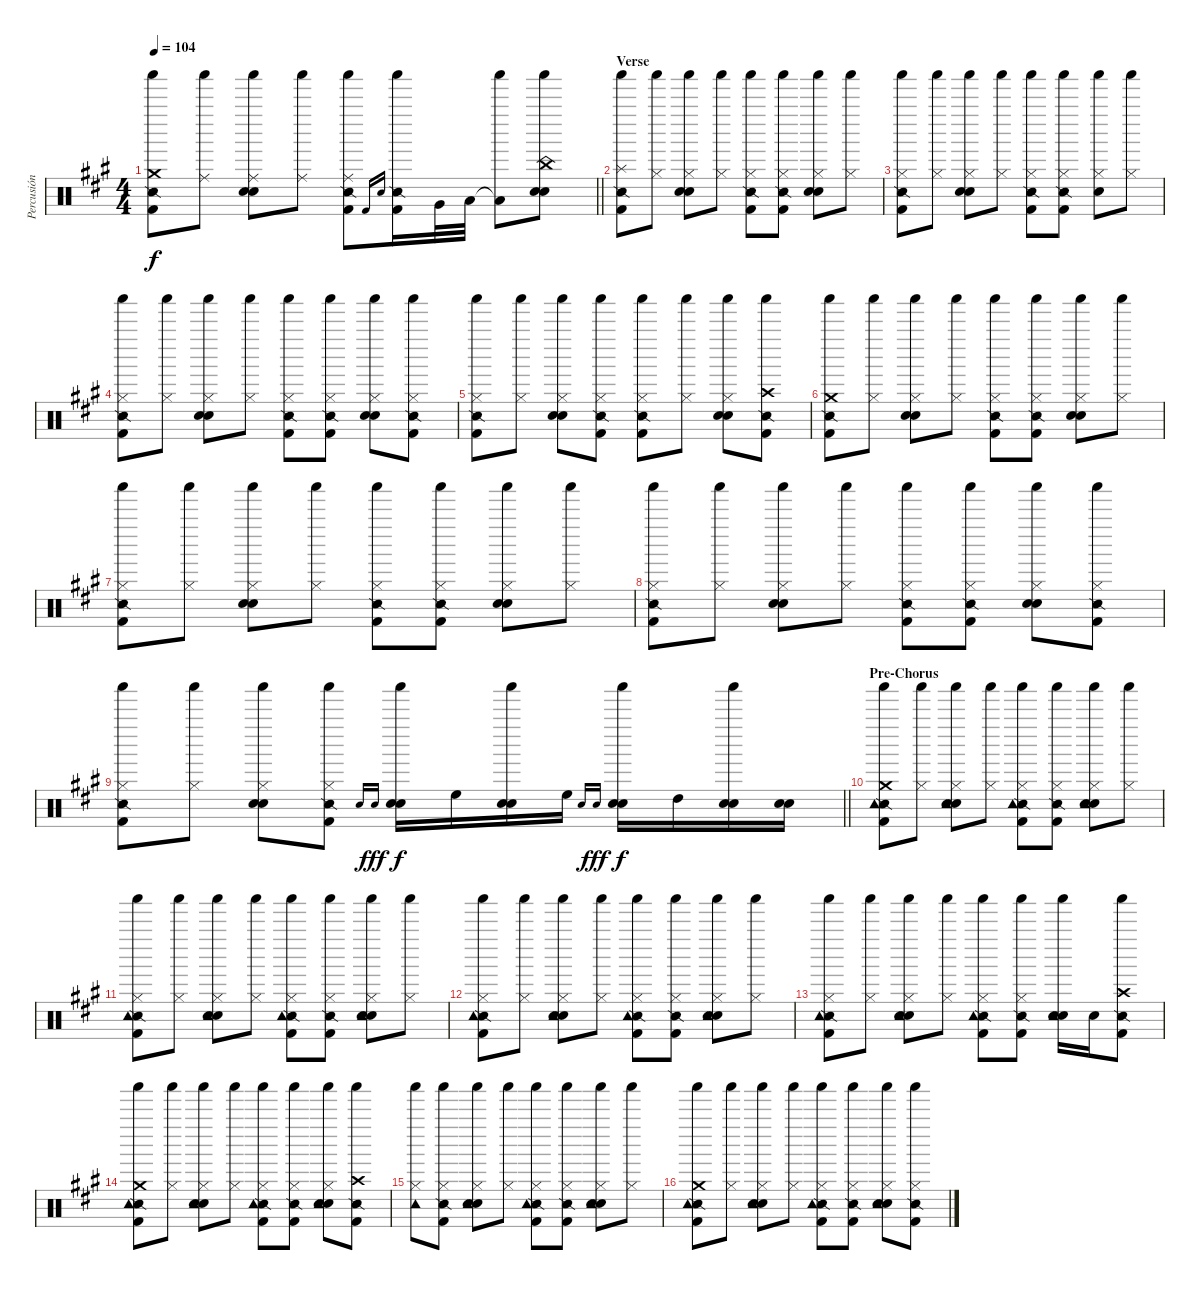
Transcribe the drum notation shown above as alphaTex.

\track ("Percusión" "Percusión") {instrument percussion}
\staff {score}
\articulation defaults
\ts (4 4)
\tempo 104
\clef neutral
\barLineRight lightlight
\ks a
("Crash medium (hit)" "Kick (hit) 2" "Snare (side stick) 2" "Shaker (hit)").8{dy f} ("Ride (middle)" "Shaker (hit)").8 ("Ride (middle)" "Snare (hit) 2" "Electric Snare (hit)" "Shaker (hit)").8 ("Ride (middle)" "Shaker (hit)").8 ("Ride (middle)" "Kick (hit) 2" "Snare (side stick) 2" "Shaker (hit)").8 "Kick (hit) 2".16{gr onbeat} "Snare (hit)".16{gr onbeat} ("Kick (hit) 2" "Snare (side stick) 2" "Shaker (hit)").16 "Very Low Tom (hit)".32 "Low Floor Tom (hit)".32 ("Low Floor Tom (hit)"{t} "Shaker (hit)").8 ("China (hit)" "Snare (hit) 2" "Electric Snare (hit)" "Shaker (hit)").8 |
\section ("" "Verse")
("Splash (hit)" "Kick (hit) 2" "Snare (side stick) 2" "Shaker (hit)").8 ("Hi-Hat (closed)" "Shaker (hit)").8 ("Hi-Hat (closed)" "Snare (hit) 2" "Electric Snare (hit)" "Shaker (hit)").8 ("Hi-Hat (closed)" "Shaker (hit)").8 ("Hi-Hat (closed)" "Kick (hit) 2" "Snare (side stick) 2" "Shaker (hit)").8 ("Hi-Hat (closed)" "Kick (hit) 2" "Snare (side stick) 2" "Shaker (hit)").8 ("Hi-Hat (closed)" "Snare (hit) 2" "Electric Snare (hit)" "Shaker (hit)").8 ("Hi-Hat (closed)" "Shaker (hit)").8 |
("Hi-Hat (closed)" "Kick (hit) 2" "Snare (side stick) 2" "Shaker (hit)").8 ("Hi-Hat (closed)" "Shaker (hit)").8 ("Hi-Hat (closed)" "Snare (hit) 2" "Electric Snare (hit)" "Shaker (hit)").8 ("Hi-Hat (closed)" "Shaker (hit)").8 ("Hi-Hat (closed)" "Kick (hit) 2" "Snare (side stick) 2" "Shaker (hit)").8 ("Hi-Hat (closed)" "Kick (hit) 2" "Snare (side stick) 2" "Shaker (hit)").8 ("Hi-Hat (closed)" "Snare (hit) 2" "Shaker (hit)").8 ("Hi-Hat (closed)" "Shaker (hit)").8 |
("Hi-Hat (closed)" "Kick (hit) 2" "Snare (side stick) 2" "Shaker (hit)").8 ("Hi-Hat (closed)" "Shaker (hit)").8 ("Hi-Hat (closed)" "Snare (hit) 2" "Electric Snare (hit)" "Shaker (hit)").8 ("Hi-Hat (closed)" "Shaker (hit)").8 ("Hi-Hat (closed)" "Kick (hit) 2" "Snare (side stick) 2" "Shaker (hit)").8 ("Hi-Hat (closed)" "Kick (hit) 2" "Snare (side stick) 2" "Shaker (hit)").8 ("Hi-Hat (closed)" "Snare (hit) 2" "Electric Snare (hit)" "Shaker (hit)").8 ("Hi-Hat (closed)" "Kick (hit) 2" "Snare (side stick) 2" "Shaker (hit)").8 |
("Hi-Hat (closed)" "Kick (hit) 2" "Snare (side stick) 2" "Shaker (hit)").8 ("Hi-Hat (closed)" "Shaker (hit)").8 ("Hi-Hat (closed)" "Snare (hit) 2" "Electric Snare (hit)" "Shaker (hit)").8 ("Hi-Hat (closed)" "Kick (hit) 2" "Snare (side stick) 2" "Shaker (hit)").8 ("Hi-Hat (closed)" "Kick (hit) 2" "Snare (side stick) 2" "Shaker (hit)").8 ("Hi-Hat (closed)" "Shaker (hit)").8 ("Hi-Hat (closed)" "Snare (hit) 2" "Electric Snare (hit)" "Shaker (hit)").8 ("Crash high (hit)" "Kick (hit) 2" "Snare (side stick) 2" "Shaker (hit)").8 |
("Crash medium (hit)" "Kick (hit) 2" "Snare (side stick) 2" "Shaker (hit)").8 ("Hi-Hat (closed)" "Shaker (hit)").8 ("Hi-Hat (closed)" "Snare (hit) 2" "Electric Snare (hit)" "Shaker (hit)").8 ("Hi-Hat (closed)" "Shaker (hit)").8 ("Hi-Hat (closed)" "Kick (hit) 2" "Snare (side stick) 2" "Shaker (hit)").8 ("Hi-Hat (closed)" "Kick (hit) 2" "Snare (side stick) 2" "Shaker (hit)").8 ("Hi-Hat (closed)" "Snare (hit) 2" "Electric Snare (hit)" "Shaker (hit)").8 ("Hi-Hat (closed)" "Shaker (hit)").8 |
("Hi-Hat (closed)" "Kick (hit) 2" "Snare (side stick) 2" "Shaker (hit)").8 ("Hi-Hat (closed)" "Shaker (hit)").8 ("Hi-Hat (closed)" "Snare (hit) 2" "Electric Snare (hit)" "Shaker (hit)").8 ("Hi-Hat (closed)" "Shaker (hit)").8 ("Hi-Hat (closed)" "Kick (hit) 2" "Snare (side stick) 2" "Shaker (hit)").8 ("Hi-Hat (closed)" "Kick (hit) 2" "Snare (side stick) 2" "Shaker (hit)").8 ("Hi-Hat (closed)" "Snare (hit) 2" "Electric Snare (hit)" "Shaker (hit)").8 ("Hi-Hat (closed)" "Shaker (hit)").8 |
("Hi-Hat (closed)" "Kick (hit) 2" "Snare (side stick) 2" "Shaker (hit)").8 ("Hi-Hat (closed)" "Shaker (hit)").8 ("Hi-Hat (closed)" "Snare (hit) 2" "Electric Snare (hit)" "Shaker (hit)").8 ("Hi-Hat (closed)" "Shaker (hit)").8 ("Hi-Hat (closed)" "Kick (hit) 2" "Snare (side stick) 2" "Shaker (hit)").8 ("Hi-Hat (closed)" "Kick (hit) 2" "Snare (side stick) 2" "Shaker (hit)").8 ("Hi-Hat (closed)" "Snare (hit) 2" "Electric Snare (hit)" "Shaker (hit)").8 ("Hi-Hat (closed)" "Kick (hit) 2" "Snare (side stick) 2" "Shaker (hit)").8 |
\barLineRight lightlight
("Hi-Hat (closed)" "Kick (hit) 2" "Snare (side stick) 2" "Shaker (hit)").8 ("Hi-Hat (closed)" "Shaker (hit)").8 ("Hi-Hat (closed)" "Snare (hit) 2" "Electric Snare (hit)" "Shaker (hit)").8 ("Hi-Hat (closed)" "Kick (hit) 2" "Snare (side stick) 2" "Shaker (hit)").8 "Snare (hit) 2".16{gr onbeat} "Electric Snare (hit)".16{gr onbeat dy fff} ("Snare (hit) 2" "Electric Snare (hit)" "Shaker (hit)").16{dy f} "High Floor Tom (hit)".16 ("Snare (hit) 2" "Electric Snare (hit)" "Shaker (hit)").16 "High Floor Tom (hit)".16 "Snare (hit) 2".16{gr onbeat} "Electric Snare (hit)".16{gr onbeat dy fff} ("Snare (hit) 2" "Electric Snare (hit)" "Shaker (hit)").16{dy f} "High Tom (hit)".16 ("Snare (hit) 2" "Electric Snare (hit)" "Shaker (hit)").16 ("Snare (hit) 2" "Electric Snare (hit)").16 |
\section ("" "Pre-Chorus")
("Crash medium (hit)" "Kick (hit) 2" "Snare (side stick) 2" "Tambourine (hit)" "Shaker (hit)").8 ("Hi-Hat (closed)" "Shaker (hit)").8 ("Hi-Hat (closed)" "Snare (hit) 2" "Electric Snare (hit)" "Tambourine (hit)" "Shaker (hit)").8 ("Hi-Hat (closed)" "Shaker (hit)").8 ("Hi-Hat (closed)" "Kick (hit) 2" "Snare (side stick) 2" "Tambourine (hit)" "Shaker (hit)").8 ("Hi-Hat (closed)" "Kick (hit) 2" "Snare (side stick) 2" "Shaker (hit)").8 ("Hi-Hat (closed)" "Snare (hit) 2" "Electric Snare (hit)" "Tambourine (hit)" "Shaker (hit)").8 ("Hi-Hat (closed)" "Shaker (hit)").8 |
("Hi-Hat (closed)" "Kick (hit) 2" "Snare (side stick) 2" "Tambourine (hit)" "Shaker (hit)").8 ("Hi-Hat (closed)" "Shaker (hit)").8 ("Hi-Hat (closed)" "Snare (hit) 2" "Electric Snare (hit)" "Tambourine (hit)" "Shaker (hit)").8 ("Hi-Hat (closed)" "Shaker (hit)").8 ("Hi-Hat (closed)" "Kick (hit) 2" "Snare (side stick) 2" "Tambourine (hit)" "Shaker (hit)").8 ("Hi-Hat (closed)" "Kick (hit) 2" "Snare (side stick) 2" "Shaker (hit)").8 ("Hi-Hat (closed)" "Snare (hit) 2" "Electric Snare (hit)" "Tambourine (hit)" "Shaker (hit)").8 ("Hi-Hat (closed)" "Shaker (hit)").8 |
("Hi-Hat (closed)" "Kick (hit) 2" "Snare (side stick) 2" "Tambourine (hit)" "Shaker (hit)").8 ("Hi-Hat (closed)" "Shaker (hit)").8 ("Hi-Hat (closed)" "Snare (hit) 2" "Electric Snare (hit)" "Tambourine (hit)" "Shaker (hit)").8 ("Hi-Hat (closed)" "Shaker (hit)").8 ("Hi-Hat (closed)" "Kick (hit) 2" "Snare (side stick) 2" "Tambourine (hit)" "Shaker (hit)").8 ("Hi-Hat (closed)" "Kick (hit) 2" "Snare (side stick) 2" "Shaker (hit)").8 ("Hi-Hat (closed)" "Snare (hit) 2" "Electric Snare (hit)" "Tambourine (hit)" "Shaker (hit)").8 ("Hi-Hat (closed)" "Shaker (hit)").8 |
("Hi-Hat (closed)" "Kick (hit) 2" "Snare (side stick) 2" "Tambourine (hit)" "Shaker (hit)").8 ("Hi-Hat (closed)" "Shaker (hit)").8 ("Hi-Hat (closed)" "Snare (hit) 2" "Electric Snare (hit)" "Tambourine (hit)" "Shaker (hit)").8 ("Hi-Hat (closed)" "Shaker (hit)").8 ("Hi-Hat (closed)" "Kick (hit) 2" "Snare (side stick) 2" "Tambourine (hit)" "Shaker (hit)").8 ("Hi-Hat (closed)" "Kick (hit) 2" "Snare (side stick) 2" "Shaker (hit)").8 ("Snare (hit) 2" "Electric Snare (hit)" "Tambourine (hit)" "Shaker (hit)").16 "Snare (hit) 2".16 ("Crash high (hit)" "Kick (hit) 2" "Snare (side stick) 2" "Shaker (hit)").8 |
("Crash medium (hit)" "Kick (hit) 2" "Snare (side stick) 2" "Tambourine (hit)" "Shaker (hit)").8 ("Hi-Hat (closed)" "Shaker (hit)").8 ("Hi-Hat (closed)" "Snare (hit) 2" "Electric Snare (hit)" "Tambourine (hit)" "Shaker (hit)").8 ("Hi-Hat (closed)" "Shaker (hit)").8 ("Hi-Hat (closed)" "Kick (hit) 2" "Snare (side stick) 2" "Tambourine (hit)" "Shaker (hit)").8 ("Hi-Hat (closed)" "Kick (hit) 2" "Snare (side stick) 2" "Shaker (hit)").8 ("Hi-Hat (closed)" "Snare (hit) 2" "Electric Snare (hit)" "Tambourine (hit)" "Shaker (hit)").8 ("Crash high (hit)" "Kick (hit) 2" "Snare (side stick) 2" "Shaker (hit)").8 |
("Hi-Hat (closed)" "Tambourine (hit)" "Shaker (hit)").8 ("Hi-Hat (closed)" "Kick (hit) 2" "Snare (side stick) 2" "Shaker (hit)").8 ("Hi-Hat (closed)" "Snare (hit) 2" "Electric Snare (hit)" "Tambourine (hit)" "Shaker (hit)").8 ("Hi-Hat (closed)" "Shaker (hit)").8 ("Hi-Hat (closed)" "Kick (hit) 2" "Snare (side stick) 2" "Tambourine (hit)" "Shaker (hit)").8 ("Hi-Hat (closed)" "Kick (hit) 2" "Snare (side stick) 2" "Shaker (hit)").8 ("Hi-Hat (closed)" "Snare (hit) 2" "Electric Snare (hit)" "Tambourine (hit)" "Shaker (hit)").8 ("Hi-Hat (closed)" "Shaker (hit)").8 |
("Crash medium (hit)" "Kick (hit) 2" "Snare (side stick) 2" "Tambourine (hit)" "Shaker (hit)").8 ("Hi-Hat (closed)" "Shaker (hit)").8 ("Hi-Hat (closed)" "Snare (hit) 2" "Electric Snare (hit)" "Tambourine (hit)" "Shaker (hit)").8 ("Hi-Hat (closed)" "Shaker (hit)").8 ("Hi-Hat (closed)" "Kick (hit) 2" "Snare (side stick) 2" "Tambourine (hit)" "Shaker (hit)").8 ("Hi-Hat (closed)" "Kick (hit) 2" "Snare (side stick) 2" "Shaker (hit)").8 ("Hi-Hat (closed)" "Snare (hit) 2" "Electric Snare (hit)" "Tambourine (hit)" "Shaker (hit)").8 ("Hi-Hat (closed)" "Kick (hit) 2" "Snare (side stick) 2" "Shaker (hit)").8
